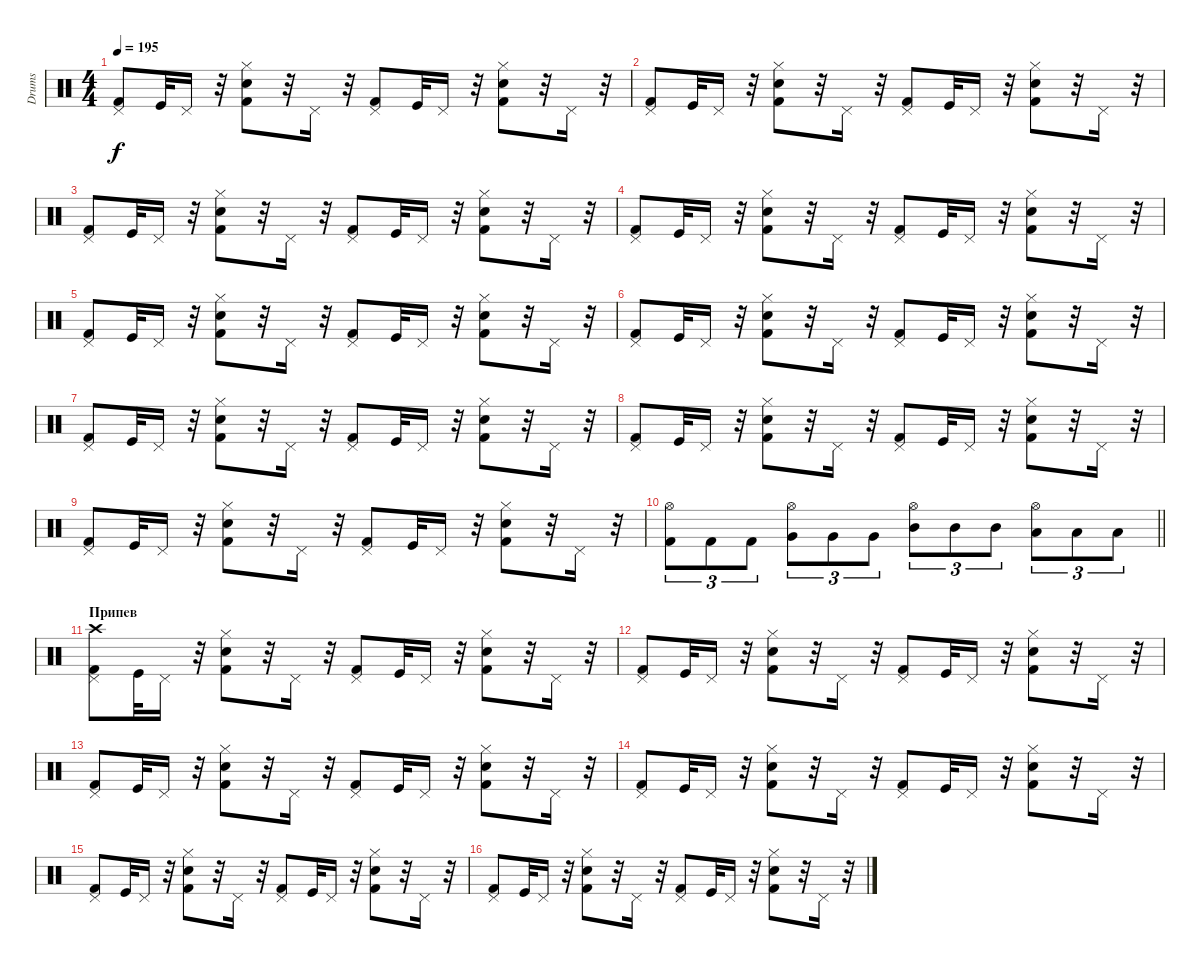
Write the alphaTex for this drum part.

\track ("Drums" "Drums") {instrument percussion}
\staff {score}
\articulation defaults
\ts (4 4)
\tempo 195
\clef neutral
\ks c
("Kick (hit) 2" "Pedal Hi-Hat (hit)").8{dy f} "Kick (hit)".32 "Pedal Hi-Hat (hit)".16 r.32 ("Snare (hit) 2" "Kick (hit) 2" "Hi-Hat (closed)").8 r.32 "Pedal Hi-Hat (hit)".16 r.32 ("Kick (hit) 2" "Pedal Hi-Hat (hit)").8 "Kick (hit)".32 "Pedal Hi-Hat (hit)".16 r.32 ("Snare (hit) 2" "Kick (hit) 2" "Hi-Hat (closed)").8 r.32 "Pedal Hi-Hat (hit)".16 r.32 |
("Kick (hit) 2" "Pedal Hi-Hat (hit)").8 "Kick (hit)".32 "Pedal Hi-Hat (hit)".16 r.32 ("Snare (hit) 2" "Kick (hit) 2" "Hi-Hat (closed)").8 r.32 "Pedal Hi-Hat (hit)".16 r.32 ("Kick (hit) 2" "Pedal Hi-Hat (hit)").8 "Kick (hit)".32 "Pedal Hi-Hat (hit)".16 r.32 ("Snare (hit) 2" "Kick (hit) 2" "Hi-Hat (closed)").8 r.32 "Pedal Hi-Hat (hit)".16 r.32 |
("Kick (hit) 2" "Pedal Hi-Hat (hit)").8 "Kick (hit)".32 "Pedal Hi-Hat (hit)".16 r.32 ("Snare (hit) 2" "Kick (hit) 2" "Hi-Hat (closed)").8 r.32 "Pedal Hi-Hat (hit)".16 r.32 ("Kick (hit) 2" "Pedal Hi-Hat (hit)").8 "Kick (hit)".32 "Pedal Hi-Hat (hit)".16 r.32 ("Snare (hit) 2" "Kick (hit) 2" "Hi-Hat (closed)").8 r.32 "Pedal Hi-Hat (hit)".16 r.32 |
("Kick (hit) 2" "Pedal Hi-Hat (hit)").8 "Kick (hit)".32 "Pedal Hi-Hat (hit)".16 r.32 ("Snare (hit) 2" "Kick (hit) 2" "Hi-Hat (closed)").8 r.32 "Pedal Hi-Hat (hit)".16 r.32 ("Kick (hit) 2" "Pedal Hi-Hat (hit)").8 "Kick (hit)".32 "Pedal Hi-Hat (hit)".16 r.32 ("Snare (hit) 2" "Kick (hit) 2" "Hi-Hat (closed)").8 r.32 "Pedal Hi-Hat (hit)".16 r.32 |
("Kick (hit) 2" "Pedal Hi-Hat (hit)").8 "Kick (hit)".32 "Pedal Hi-Hat (hit)".16 r.32 ("Snare (hit) 2" "Kick (hit) 2" "Hi-Hat (closed)").8 r.32 "Pedal Hi-Hat (hit)".16 r.32 ("Kick (hit) 2" "Pedal Hi-Hat (hit)").8 "Kick (hit)".32 "Pedal Hi-Hat (hit)".16 r.32 ("Snare (hit) 2" "Kick (hit) 2" "Hi-Hat (closed)").8 r.32 "Pedal Hi-Hat (hit)".16 r.32 |
("Kick (hit) 2" "Pedal Hi-Hat (hit)").8 "Kick (hit)".32 "Pedal Hi-Hat (hit)".16 r.32 ("Snare (hit) 2" "Kick (hit) 2" "Hi-Hat (closed)").8 r.32 "Pedal Hi-Hat (hit)".16 r.32 ("Kick (hit) 2" "Pedal Hi-Hat (hit)").8 "Kick (hit)".32 "Pedal Hi-Hat (hit)".16 r.32 ("Snare (hit) 2" "Kick (hit) 2" "Hi-Hat (closed)").8 r.32 "Pedal Hi-Hat (hit)".16 r.32 |
("Kick (hit) 2" "Pedal Hi-Hat (hit)").8 "Kick (hit)".32 "Pedal Hi-Hat (hit)".16 r.32 ("Snare (hit) 2" "Kick (hit) 2" "Hi-Hat (closed)").8 r.32 "Pedal Hi-Hat (hit)".16 r.32 ("Kick (hit) 2" "Pedal Hi-Hat (hit)").8 "Kick (hit)".32 "Pedal Hi-Hat (hit)".16 r.32 ("Snare (hit) 2" "Kick (hit) 2" "Hi-Hat (closed)").8 r.32 "Pedal Hi-Hat (hit)".16 r.32 |
("Kick (hit) 2" "Pedal Hi-Hat (hit)").8 "Kick (hit)".32 "Pedal Hi-Hat (hit)".16 r.32 ("Snare (hit) 2" "Kick (hit) 2" "Hi-Hat (closed)").8 r.32 "Pedal Hi-Hat (hit)".16 r.32 ("Kick (hit) 2" "Pedal Hi-Hat (hit)").8 "Kick (hit)".32 "Pedal Hi-Hat (hit)".16 r.32 ("Snare (hit) 2" "Kick (hit) 2" "Hi-Hat (closed)").8 r.32 "Pedal Hi-Hat (hit)".16 r.32 |
("Kick (hit) 2" "Pedal Hi-Hat (hit)").8 "Kick (hit)".32 "Pedal Hi-Hat (hit)".16 r.32 ("Snare (hit) 2" "Kick (hit) 2" "Hi-Hat (closed)").8 r.32 "Pedal Hi-Hat (hit)".16 r.32 ("Kick (hit) 2" "Pedal Hi-Hat (hit)").8 "Kick (hit)".32 "Pedal Hi-Hat (hit)".16 r.32 ("Snare (hit) 2" "Kick (hit) 2" "Hi-Hat (closed)").8 r.32 "Pedal Hi-Hat (hit)".16 r.32 |
\barLineRight lightlight
("Hi-Hat (open)" "Kick (hit) 2").8{tu (3 2)} "Kick (hit) 2".8{tu (3 2)} "Kick (hit) 2".8{tu (3 2)} ("Hi-Hat (open)" "Very Low Tom (hit)").8{tu (3 2)} "Very Low Tom (hit)".8{tu (3 2)} "Very Low Tom (hit)".8{tu (3 2)} ("Hi-Hat (open)" "Mid Tom (hit)").8{tu (3 2)} "Mid Tom (hit)".8{tu (3 2)} "Mid Tom (hit)".8{tu (3 2)} ("Hi-Hat (open)" "Low Tom (hit)").8{tu (3 2)} "Low Tom (hit)".8{tu (3 2)} "Low Tom (hit)".8{tu (3 2)} |
\section ("" "Припев")
("Crash high (hit)" "Kick (hit) 2" "Pedal Hi-Hat (hit)").8 "Kick (hit)".32 "Pedal Hi-Hat (hit)".16 r.32 ("Snare (hit) 2" "Kick (hit) 2" "Hi-Hat (closed)").8 r.32 "Pedal Hi-Hat (hit)".16 r.32 ("Kick (hit) 2" "Pedal Hi-Hat (hit)").8 "Kick (hit)".32 "Pedal Hi-Hat (hit)".16 r.32 ("Snare (hit) 2" "Kick (hit) 2" "Hi-Hat (closed)").8 r.32 "Pedal Hi-Hat (hit)".16 r.32 |
("Kick (hit) 2" "Pedal Hi-Hat (hit)").8 "Kick (hit)".32 "Pedal Hi-Hat (hit)".16 r.32 ("Snare (hit) 2" "Kick (hit) 2" "Hi-Hat (closed)").8 r.32 "Pedal Hi-Hat (hit)".16 r.32 ("Kick (hit) 2" "Pedal Hi-Hat (hit)").8 "Kick (hit)".32 "Pedal Hi-Hat (hit)".16 r.32 ("Snare (hit) 2" "Kick (hit) 2" "Hi-Hat (closed)").8 r.32 "Pedal Hi-Hat (hit)".16 r.32 |
("Kick (hit) 2" "Pedal Hi-Hat (hit)").8 "Kick (hit)".32 "Pedal Hi-Hat (hit)".16 r.32 ("Snare (hit) 2" "Kick (hit) 2" "Hi-Hat (closed)").8 r.32 "Pedal Hi-Hat (hit)".16 r.32 ("Kick (hit) 2" "Pedal Hi-Hat (hit)").8 "Kick (hit)".32 "Pedal Hi-Hat (hit)".16 r.32 ("Snare (hit) 2" "Kick (hit) 2" "Hi-Hat (closed)").8 r.32 "Pedal Hi-Hat (hit)".16 r.32 |
("Kick (hit) 2" "Pedal Hi-Hat (hit)").8 "Kick (hit)".32 "Pedal Hi-Hat (hit)".16 r.32 ("Snare (hit) 2" "Kick (hit) 2" "Hi-Hat (closed)").8 r.32 "Pedal Hi-Hat (hit)".16 r.32 ("Kick (hit) 2" "Pedal Hi-Hat (hit)").8 "Kick (hit)".32 "Pedal Hi-Hat (hit)".16 r.32 ("Snare (hit) 2" "Kick (hit) 2" "Hi-Hat (closed)").8 r.32 "Pedal Hi-Hat (hit)".16 r.32 |
("Kick (hit) 2" "Pedal Hi-Hat (hit)").8 "Kick (hit)".32 "Pedal Hi-Hat (hit)".16 r.32 ("Snare (hit) 2" "Kick (hit) 2" "Hi-Hat (closed)").8 r.32 "Pedal Hi-Hat (hit)".16 r.32 ("Kick (hit) 2" "Pedal Hi-Hat (hit)").8 "Kick (hit)".32 "Pedal Hi-Hat (hit)".16 r.32 ("Snare (hit) 2" "Kick (hit) 2" "Hi-Hat (closed)").8 r.32 "Pedal Hi-Hat (hit)".16 r.32 |
("Kick (hit) 2" "Pedal Hi-Hat (hit)").8 "Kick (hit)".32 "Pedal Hi-Hat (hit)".16 r.32 ("Snare (hit) 2" "Kick (hit) 2" "Hi-Hat (closed)").8 r.32 "Pedal Hi-Hat (hit)".16 r.32 ("Kick (hit) 2" "Pedal Hi-Hat (hit)").8 "Kick (hit)".32 "Pedal Hi-Hat (hit)".16 r.32 ("Snare (hit) 2" "Kick (hit) 2" "Hi-Hat (closed)").8 r.32 "Pedal Hi-Hat (hit)".16 r.32
